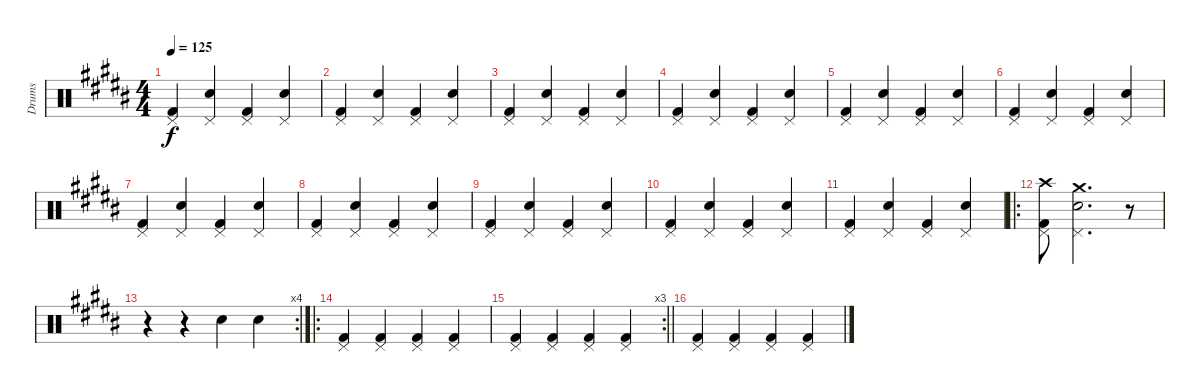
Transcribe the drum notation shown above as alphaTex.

\track ("Drums" "Drums") {instrument percussion}
\staff {score}
\articulation defaults
\ts (4 4)
\tempo 125
\clef neutral
\ks b
("Kick (hit) 2" "Pedal Hi-Hat (hit)").4{dy f} ("Snare (hit) 2" "Pedal Hi-Hat (hit)").4 ("Kick (hit) 2" "Pedal Hi-Hat (hit)").4 ("Snare (hit) 2" "Pedal Hi-Hat (hit)").4 |
("Kick (hit) 2" "Pedal Hi-Hat (hit)").4 ("Snare (hit) 2" "Pedal Hi-Hat (hit)").4 ("Kick (hit) 2" "Pedal Hi-Hat (hit)").4 ("Snare (hit) 2" "Pedal Hi-Hat (hit)").4 |
("Kick (hit) 2" "Pedal Hi-Hat (hit)").4 ("Snare (hit) 2" "Pedal Hi-Hat (hit)").4 ("Kick (hit) 2" "Pedal Hi-Hat (hit)").4 ("Snare (hit) 2" "Pedal Hi-Hat (hit)").4 |
("Kick (hit) 2" "Pedal Hi-Hat (hit)").4 ("Snare (hit) 2" "Pedal Hi-Hat (hit)").4 ("Kick (hit) 2" "Pedal Hi-Hat (hit)").4 ("Snare (hit) 2" "Pedal Hi-Hat (hit)").4 |
("Kick (hit) 2" "Pedal Hi-Hat (hit)").4 ("Snare (hit) 2" "Pedal Hi-Hat (hit)").4 ("Kick (hit) 2" "Pedal Hi-Hat (hit)").4 ("Snare (hit) 2" "Pedal Hi-Hat (hit)").4 |
("Kick (hit) 2" "Pedal Hi-Hat (hit)").4 ("Snare (hit) 2" "Pedal Hi-Hat (hit)").4 ("Kick (hit) 2" "Pedal Hi-Hat (hit)").4 ("Snare (hit) 2" "Pedal Hi-Hat (hit)").4 |
("Kick (hit) 2" "Pedal Hi-Hat (hit)").4 ("Snare (hit) 2" "Pedal Hi-Hat (hit)").4 ("Kick (hit) 2" "Pedal Hi-Hat (hit)").4 ("Snare (hit) 2" "Pedal Hi-Hat (hit)").4 |
("Kick (hit) 2" "Pedal Hi-Hat (hit)").4 ("Snare (hit) 2" "Pedal Hi-Hat (hit)").4 ("Kick (hit) 2" "Pedal Hi-Hat (hit)").4 ("Snare (hit) 2" "Pedal Hi-Hat (hit)").4 |
("Kick (hit) 2" "Pedal Hi-Hat (hit)").4 ("Snare (hit) 2" "Pedal Hi-Hat (hit)").4 ("Kick (hit) 2" "Pedal Hi-Hat (hit)").4 ("Snare (hit) 2" "Pedal Hi-Hat (hit)").4 |
("Kick (hit) 2" "Pedal Hi-Hat (hit)").4 ("Snare (hit) 2" "Pedal Hi-Hat (hit)").4 ("Kick (hit) 2" "Pedal Hi-Hat (hit)").4 ("Snare (hit) 2" "Pedal Hi-Hat (hit)").4 |
("Kick (hit) 2" "Pedal Hi-Hat (hit)").4 ("Snare (hit) 2" "Pedal Hi-Hat (hit)").4 ("Kick (hit) 2" "Pedal Hi-Hat (hit)").4 ("Snare (hit) 2" "Pedal Hi-Hat (hit)").4 |
\ro
("Kick (hit) 2" "Pedal Hi-Hat (hit)" "Crash high (hit)").8 ("Snare (hit) 2" "Pedal Hi-Hat (hit)" "Crash medium (hit)").2{d} r.8 |
\rc 4
r.4 r.4 "Snare (hit) 2".4 "Snare (hit) 2".4 |
\ro
("Kick (hit) 2" "Pedal Hi-Hat (hit)").4 ("Kick (hit) 2" "Pedal Hi-Hat (hit)").4 ("Kick (hit) 2" "Pedal Hi-Hat (hit)").4 ("Kick (hit) 2" "Pedal Hi-Hat (hit)").4 |
\rc 3
\barLineRight lightlight
("Kick (hit) 2" "Pedal Hi-Hat (hit)").4 ("Kick (hit) 2" "Pedal Hi-Hat (hit)").4 ("Kick (hit) 2" "Pedal Hi-Hat (hit)").4 ("Kick (hit) 2" "Pedal Hi-Hat (hit)").4 |
("Kick (hit) 2" "Pedal Hi-Hat (hit)").4 ("Kick (hit) 2" "Pedal Hi-Hat (hit)").4 ("Kick (hit) 2" "Pedal Hi-Hat (hit)").4 ("Kick (hit) 2" "Pedal Hi-Hat (hit)").4
